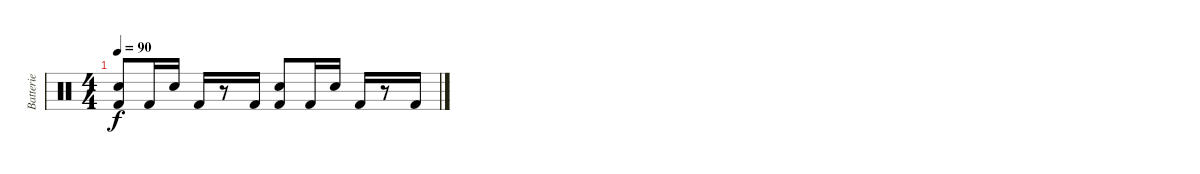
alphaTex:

\track ("Batterie" "Batterie") {instrument percussion}
\staff {score}
\articulation defaults
\ts (4 4)
\tempo 90
\clef neutral
\ks c
("Electric Snare (hit)" "Kick (hit) 2").8{dy f} "Kick (hit) 2".16 "Electric Snare (hit)".16 "Kick (hit) 2".16 r.8 "Kick (hit) 2".16 ("Electric Snare (hit)" "Kick (hit) 2").8 "Kick (hit) 2".16 "Electric Snare (hit)".16 "Kick (hit) 2".16 r.8 "Kick (hit) 2".16
